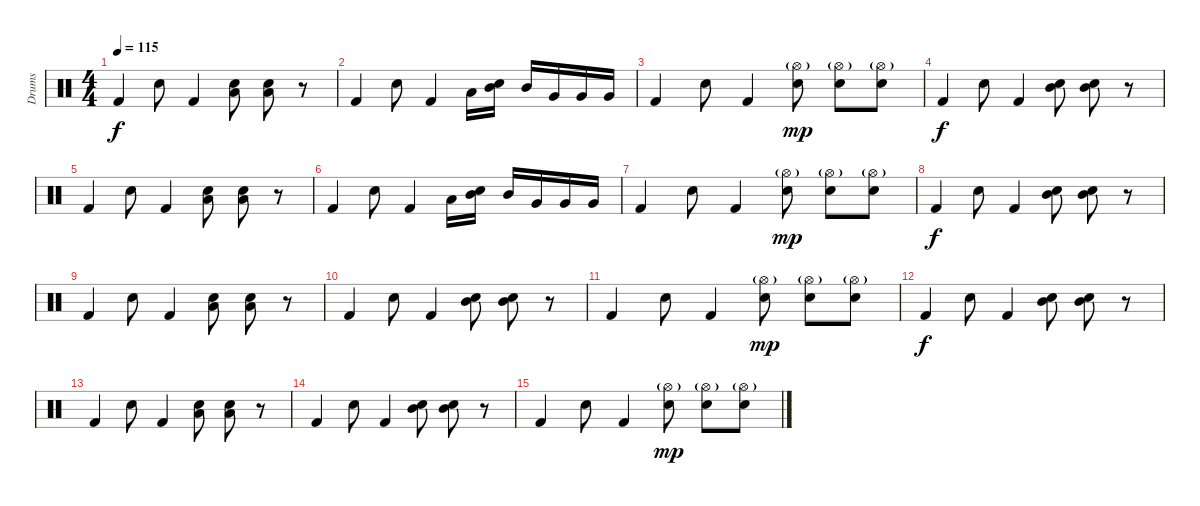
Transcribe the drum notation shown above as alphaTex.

\track ("Drums" "Drums") {instrument percussion}
\staff {score}
\articulation defaults
\ts (4 4)
\tempo 115
\clef neutral
\ks c "Kick (hit) 2".4{dy f} "Snare (hit) 2".8 "Kick (hit) 2".4
("Low Tom (hit)" "Snare (hit) 2").8 ("Low Tom (hit)" "Snare (hit) 2").8 r.8 |
"Kick (hit) 2".4 "Snare (hit) 2".8 "Kick (hit) 2".4 "Low Tom (hit)".16 ("Mid Tom (hit)" "Snare (hit) 2").16 "Mid Tom (hit)".16 "Very Low Tom (hit)".16 "Very Low Tom (hit)".16 "Very Low Tom (hit)".16 |
"Kick (hit) 2".4 "Snare (hit) 2".8 "Kick (hit) 2".4 ("Hi-Hat (open)"{g} "Snare (hit) 2").8{dy mp} ("Hi-Hat (open)"{g} "Snare (hit) 2").8 ("Hi-Hat (open)"{g} "Snare (hit) 2").8 |
"Kick (hit) 2".4{dy f} "Snare (hit) 2".8 "Kick (hit) 2".4 ("Mid Tom (hit)" "Snare (hit) 2").8 ("Mid Tom (hit)" "Snare (hit) 2").8 r.8 |
"Kick (hit) 2".4 "Snare (hit) 2".8 "Kick (hit) 2".4 ("Low Tom (hit)" "Snare (hit) 2").8 ("Low Tom (hit)" "Snare (hit) 2").8 r.8 |
"Kick (hit) 2".4 "Snare (hit) 2".8 "Kick (hit) 2".4 "Low Tom (hit)".16 ("Mid Tom (hit)" "Snare (hit) 2").16 "Mid Tom (hit)".16 "Very Low Tom (hit)".16 "Very Low Tom (hit)".16 "Very Low Tom (hit)".16 |
"Kick (hit) 2".4 "Snare (hit) 2".8 "Kick (hit) 2".4 ("Hi-Hat (open)"{g} "Snare (hit) 2").8{dy mp} ("Hi-Hat (open)"{g} "Snare (hit) 2").8 ("Hi-Hat (open)"{g} "Snare (hit) 2").8 |
"Kick (hit) 2".4{dy f} "Snare (hit) 2".8 "Kick (hit) 2".4 ("Mid Tom (hit)" "Snare (hit) 2").8 ("Mid Tom (hit)" "Snare (hit) 2").8 r.8 |
"Kick (hit) 2".4 "Snare (hit) 2".8 "Kick (hit) 2".4 ("Low Tom (hit)" "Snare (hit) 2").8 ("Low Tom (hit)" "Snare (hit) 2").8 r.8 |
"Kick (hit) 2".4 "Snare (hit) 2".8 "Kick (hit) 2".4 ("Mid Tom (hit)" "Snare (hit) 2").8 ("Mid Tom (hit)" "Snare (hit) 2").8 r.8 |
"Kick (hit) 2".4 "Snare (hit) 2".8 "Kick (hit) 2".4 ("Hi-Hat (open)"{g} "Snare (hit) 2").8{dy mp} ("Hi-Hat (open)"{g} "Snare (hit) 2").8 ("Hi-Hat (open)"{g} "Snare (hit) 2").8 |
"Kick (hit) 2".4{dy f} "Snare (hit) 2".8 "Kick (hit) 2".4 ("Mid Tom (hit)" "Snare (hit) 2").8 ("Mid Tom (hit)" "Snare (hit) 2").8 r.8 |
"Kick (hit) 2".4 "Snare (hit) 2".8 "Kick (hit) 2".4 ("Low Tom (hit)" "Snare (hit) 2").8 ("Low Tom (hit)" "Snare (hit) 2").8 r.8 |
"Kick (hit) 2".4 "Snare (hit) 2".8 "Kick (hit) 2".4 ("Mid Tom (hit)" "Snare (hit) 2").8 ("Mid Tom (hit)" "Snare (hit) 2").8 r.8 |
"Kick (hit) 2".4 "Snare (hit) 2".8 "Kick (hit) 2".4 ("Hi-Hat (open)"{g} "Snare (hit) 2").8{dy mp} ("Hi-Hat (open)"{g} "Snare (hit) 2").8 ("Hi-Hat (open)"{g} "Snare (hit) 2").8
